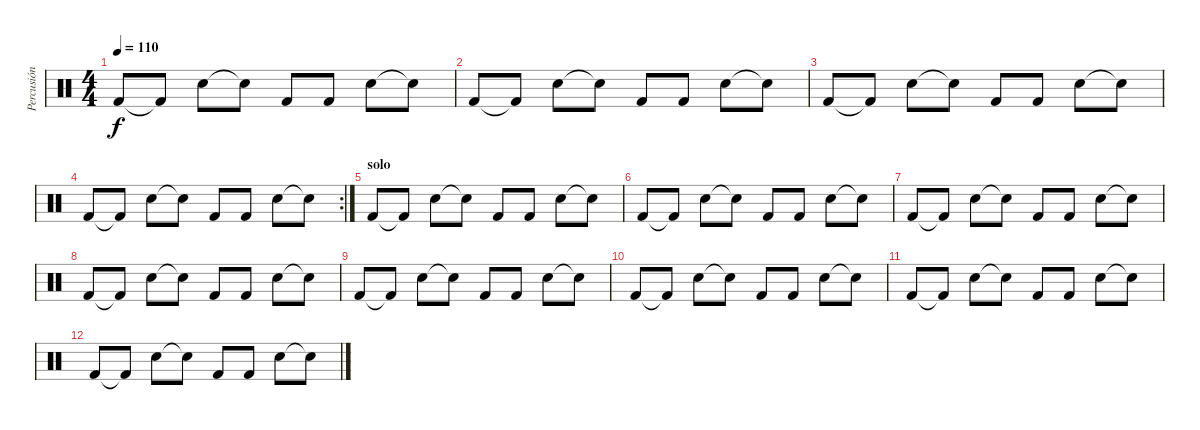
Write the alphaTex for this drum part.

\track ("Percusión" "Percusión") {instrument percussion}
\staff {score}
\articulation defaults
\ts (4 4)
\tempo 110
\clef neutral
\ks c "Kick (hit) 2".8{dy f} "Kick (hit) 2"{t}.8 "Electric Snare (hit)".8 "Snare (hit)"{t}.8 "Kick (hit) 2".8 "Kick (hit) 2".8 "Electric Snare (hit)".8 "Snare (hit)"{t}.8
|
"Kick (hit) 2".8 "Kick (hit) 2"{t}.8 "Electric Snare (hit)".8 "Snare (hit)"{t}.8 "Kick (hit) 2".8 "Kick (hit) 2".8 "Electric Snare (hit)".8 "Snare (hit)"{t}.8 |
"Kick (hit) 2".8 "Kick (hit) 2"{t}.8 "Electric Snare (hit)".8 "Snare (hit)"{t}.8 "Kick (hit) 2".8 "Kick (hit) 2".8 "Electric Snare (hit)".8 "Snare (hit)"{t}.8 |
\rc 2 "Kick (hit) 2".8 "Kick (hit) 2"{t}.8 "Electric Snare (hit)".8 "Snare (hit)"{t}.8 "Kick (hit) 2".8 "Kick (hit) 2".8 "Electric Snare (hit)".8 "Snare (hit)"{t}.8
|
\section ("" "solo")
"Kick (hit) 2".8{volume 14} "Kick (hit) 2"{t}.8 "Electric Snare (hit)".8 "Snare (hit)"{t}.8 "Kick (hit) 2".8 "Kick (hit) 2".8 "Electric Snare (hit)".8 "Snare (hit)"{t}.8 |
"Kick (hit) 2".8 "Kick (hit) 2"{t}.8 "Electric Snare (hit)".8 "Snare (hit)"{t}.8 "Kick (hit) 2".8 "Kick (hit) 2".8 "Electric Snare (hit)".8 "Snare (hit)"{t}.8 |
"Kick (hit) 2".8 "Kick (hit) 2"{t}.8 "Electric Snare (hit)".8 "Snare (hit)"{t}.8 "Kick (hit) 2".8 "Kick (hit) 2".8 "Electric Snare (hit)".8 "Snare (hit)"{t}.8 |
"Kick (hit) 2".8 "Kick (hit) 2"{t}.8 "Electric Snare (hit)".8 "Snare (hit)"{t}.8 "Kick (hit) 2".8 "Kick (hit) 2".8 "Electric Snare (hit)".8 "Snare (hit)"{t}.8 |
"Kick (hit) 2".8 "Kick (hit) 2"{t}.8 "Electric Snare (hit)".8 "Snare (hit)"{t}.8 "Kick (hit) 2".8 "Kick (hit) 2".8 "Electric Snare (hit)".8 "Snare (hit)"{t}.8 |
"Kick (hit) 2".8 "Kick (hit) 2"{t}.8 "Electric Snare (hit)".8 "Snare (hit)"{t}.8 "Kick (hit) 2".8 "Kick (hit) 2".8 "Electric Snare (hit)".8 "Snare (hit)"{t}.8 |
"Kick (hit) 2".8 "Kick (hit) 2"{t}.8 "Electric Snare (hit)".8 "Snare (hit)"{t}.8 "Kick (hit) 2".8 "Kick (hit) 2".8 "Electric Snare (hit)".8 "Snare (hit)"{t}.8 |
"Kick (hit) 2".8 "Kick (hit) 2"{t}.8 "Electric Snare (hit)".8 "Snare (hit)"{t}.8 "Kick (hit) 2".8 "Kick (hit) 2".8 "Electric Snare (hit)".8 "Snare (hit)"{t}.8
